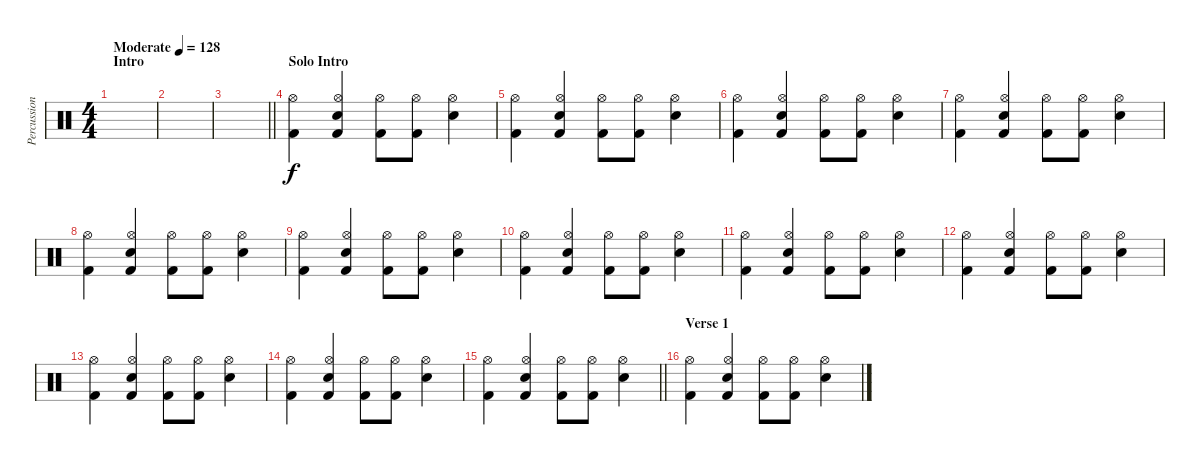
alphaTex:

\track ("Percussion" "Percussion") {instrument percussion}
\staff {score}
\articulation defaults
\ts (4 4)
\section ("" "Intro")
\tempo (128 "Moderate")
\clef neutral
\ks c
|
|
\barLineRight lightlight
|
\section ("" "Solo Intro")
("Kick (hit) 2" "Hi-Hat (open)").4 ("Kick (hit) 2" "Snare (hit) 2" "Hi-Hat (open)").4 ("Kick (hit) 2" "Hi-Hat (open)").8 ("Kick (hit) 2" "Hi-Hat (open)").8 ("Snare (hit) 2" "Hi-Hat (open)").4 |
("Kick (hit) 2" "Hi-Hat (open)").4 ("Kick (hit) 2" "Snare (hit) 2" "Hi-Hat (open)").4 ("Kick (hit) 2" "Hi-Hat (open)").8 ("Kick (hit) 2" "Hi-Hat (open)").8 ("Snare (hit) 2" "Hi-Hat (open)").4 |
("Kick (hit) 2" "Hi-Hat (open)").4 ("Kick (hit) 2" "Snare (hit) 2" "Hi-Hat (open)").4 ("Kick (hit) 2" "Hi-Hat (open)").8 ("Kick (hit) 2" "Hi-Hat (open)").8 ("Snare (hit) 2" "Hi-Hat (open)").4 |
("Kick (hit) 2" "Hi-Hat (open)").4 ("Kick (hit) 2" "Snare (hit) 2" "Hi-Hat (open)").4 ("Kick (hit) 2" "Hi-Hat (open)").8 ("Kick (hit) 2" "Hi-Hat (open)").8 ("Snare (hit) 2" "Hi-Hat (open)").4 |
("Kick (hit) 2" "Hi-Hat (open)").4 ("Kick (hit) 2" "Snare (hit) 2" "Hi-Hat (open)").4 ("Kick (hit) 2" "Hi-Hat (open)").8 ("Kick (hit) 2" "Hi-Hat (open)").8 ("Snare (hit) 2" "Hi-Hat (open)").4 |
("Kick (hit) 2" "Hi-Hat (open)").4 ("Kick (hit) 2" "Snare (hit) 2" "Hi-Hat (open)").4 ("Kick (hit) 2" "Hi-Hat (open)").8 ("Kick (hit) 2" "Hi-Hat (open)").8 ("Snare (hit) 2" "Hi-Hat (open)").4 |
("Kick (hit) 2" "Hi-Hat (open)").4 ("Kick (hit) 2" "Snare (hit) 2" "Hi-Hat (open)").4 ("Kick (hit) 2" "Hi-Hat (open)").8 ("Kick (hit) 2" "Hi-Hat (open)").8 ("Snare (hit) 2" "Hi-Hat (open)").4 |
("Kick (hit) 2" "Hi-Hat (open)").4 ("Kick (hit) 2" "Snare (hit) 2" "Hi-Hat (open)").4 ("Kick (hit) 2" "Hi-Hat (open)").8 ("Kick (hit) 2" "Hi-Hat (open)").8 ("Snare (hit) 2" "Hi-Hat (open)").4 |
("Kick (hit) 2" "Hi-Hat (open)").4 ("Kick (hit) 2" "Snare (hit) 2" "Hi-Hat (open)").4 ("Kick (hit) 2" "Hi-Hat (open)").8 ("Kick (hit) 2" "Hi-Hat (open)").8 ("Snare (hit) 2" "Hi-Hat (open)").4 |
("Kick (hit) 2" "Hi-Hat (open)").4 ("Kick (hit) 2" "Snare (hit) 2" "Hi-Hat (open)").4 ("Kick (hit) 2" "Hi-Hat (open)").8 ("Kick (hit) 2" "Hi-Hat (open)").8 ("Snare (hit) 2" "Hi-Hat (open)").4 |
("Kick (hit) 2" "Hi-Hat (open)").4 ("Kick (hit) 2" "Snare (hit) 2" "Hi-Hat (open)").4 ("Kick (hit) 2" "Hi-Hat (open)").8 ("Kick (hit) 2" "Hi-Hat (open)").8 ("Snare (hit) 2" "Hi-Hat (open)").4 |
\barLineRight lightlight
("Kick (hit) 2" "Hi-Hat (open)").4 ("Kick (hit) 2" "Snare (hit) 2" "Hi-Hat (open)").4 ("Kick (hit) 2" "Hi-Hat (open)").8 ("Kick (hit) 2" "Hi-Hat (open)").8 ("Snare (hit) 2" "Hi-Hat (open)").4 |
\section ("" "Verse 1")
("Kick (hit) 2" "Hi-Hat (open)").4 ("Kick (hit) 2" "Snare (hit) 2" "Hi-Hat (open)").4 ("Kick (hit) 2" "Hi-Hat (open)").8 ("Kick (hit) 2" "Hi-Hat (open)").8 ("Snare (hit) 2" "Hi-Hat (open)").4
